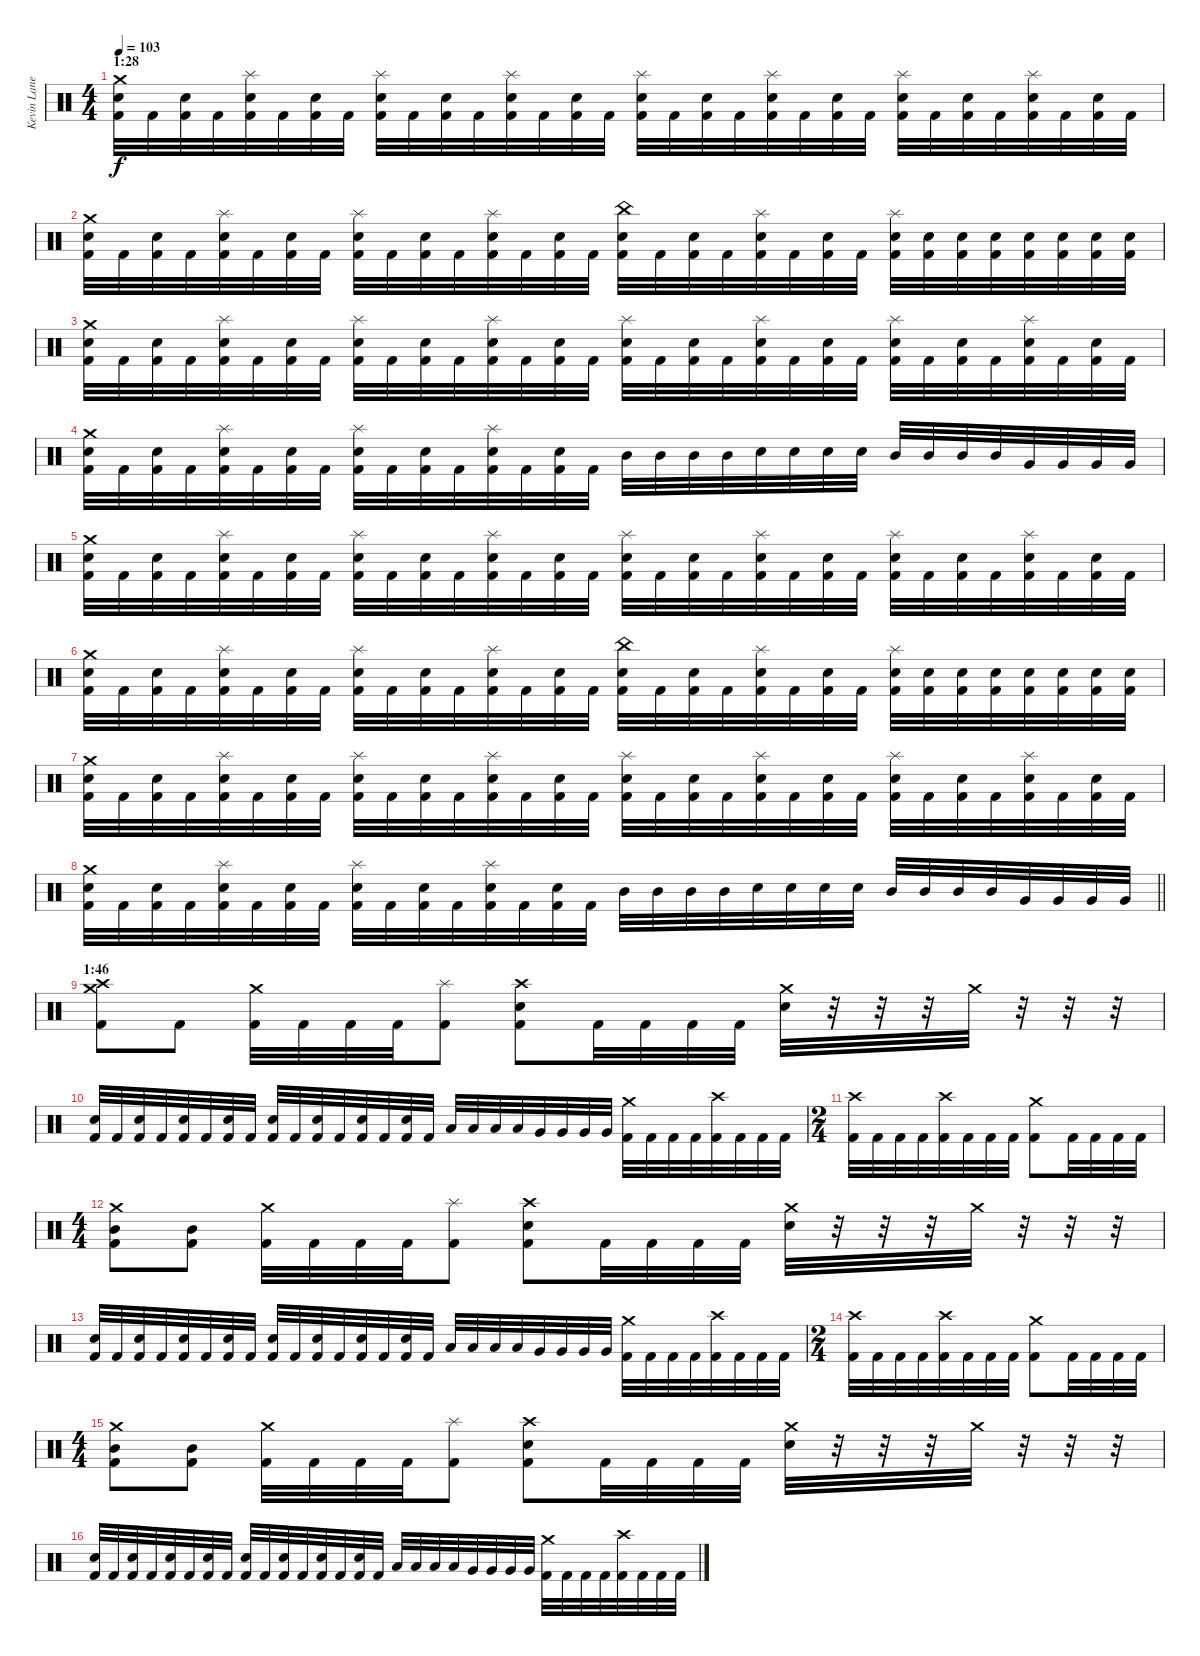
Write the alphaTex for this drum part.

\track ("Kevin Lane" "Kevin Lane") {instrument percussion}
\staff {score}
\articulation defaults
\ts (4 4)
\section ("" "1:28")
\tempo 103
\clef neutral
\ks c
("Crash medium (hit)" "Electric Snare (hit)" "Kick (hit) 2").32{dy f} "Kick (hit) 2".32 ("Electric Snare (hit)" "Kick (hit) 2").32 "Kick (hit) 2".32 ("Splash (hit)" "Electric Snare (hit)" "Kick (hit) 2").32 "Kick (hit) 2".32 ("Electric Snare (hit)" "Kick (hit) 2").32 "Kick (hit) 2".32 ("Splash (hit)" "Electric Snare (hit)" "Kick (hit) 2").32 "Kick (hit) 2".32 ("Electric Snare (hit)" "Kick (hit) 2").32 "Kick (hit) 2".32 ("Splash (hit)" "Electric Snare (hit)" "Kick (hit) 2").32 "Kick (hit) 2".32 ("Electric Snare (hit)" "Kick (hit) 2").32 "Kick (hit) 2".32 ("Splash (hit)" "Electric Snare (hit)" "Kick (hit) 2").32 "Kick (hit) 2".32 ("Electric Snare (hit)" "Kick (hit) 2").32 "Kick (hit) 2".32 ("Splash (hit)" "Electric Snare (hit)" "Kick (hit) 2").32 "Kick (hit) 2".32 ("Electric Snare (hit)" "Kick (hit) 2").32 "Kick (hit) 2".32 ("Splash (hit)" "Electric Snare (hit)" "Kick (hit) 2").32 "Kick (hit) 2".32 ("Electric Snare (hit)" "Kick (hit) 2").32 "Kick (hit) 2".32 ("Splash (hit)" "Electric Snare (hit)" "Kick (hit) 2").32 "Kick (hit) 2".32 ("Electric Snare (hit)" "Kick (hit) 2").32 "Kick (hit) 2".32 |
("Crash medium (hit)" "Electric Snare (hit)" "Kick (hit) 2").32 "Kick (hit) 2".32 ("Electric Snare (hit)" "Kick (hit) 2").32 "Kick (hit) 2".32 ("Splash (hit)" "Electric Snare (hit)" "Kick (hit) 2").32 "Kick (hit) 2".32 ("Electric Snare (hit)" "Kick (hit) 2").32 "Kick (hit) 2".32 ("Splash (hit)" "Electric Snare (hit)" "Kick (hit) 2").32 "Kick (hit) 2".32 ("Electric Snare (hit)" "Kick (hit) 2").32 "Kick (hit) 2".32 ("Splash (hit)" "Electric Snare (hit)" "Kick (hit) 2").32 "Kick (hit) 2".32 ("Electric Snare (hit)" "Kick (hit) 2").32 "Kick (hit) 2".32 ("China (hit)" "Electric Snare (hit)" "Kick (hit) 2").32 "Kick (hit) 2".32 ("Electric Snare (hit)" "Kick (hit) 2").32 "Kick (hit) 2".32 ("Splash (hit)" "Electric Snare (hit)" "Kick (hit) 2").32 "Kick (hit) 2".32 ("Electric Snare (hit)" "Kick (hit) 2").32 "Kick (hit) 2".32 ("Splash (hit)" "Electric Snare (hit)" "Kick (hit) 2").32 ("Electric Snare (hit)" "Kick (hit) 2").32 ("Electric Snare (hit)" "Kick (hit) 2").32 ("Electric Snare (hit)" "Kick (hit) 2").32 ("Electric Snare (hit)" "Kick (hit) 2").32 ("Electric Snare (hit)" "Kick (hit) 2").32 ("Electric Snare (hit)" "Kick (hit) 2").32 ("Electric Snare (hit)" "Kick (hit) 2").32 |
("Crash medium (hit)" "Electric Snare (hit)" "Kick (hit) 2").32 "Kick (hit) 2".32 ("Electric Snare (hit)" "Kick (hit) 2").32 "Kick (hit) 2".32 ("Splash (hit)" "Electric Snare (hit)" "Kick (hit) 2").32 "Kick (hit) 2".32 ("Electric Snare (hit)" "Kick (hit) 2").32 "Kick (hit) 2".32 ("Splash (hit)" "Electric Snare (hit)" "Kick (hit) 2").32 "Kick (hit) 2".32 ("Electric Snare (hit)" "Kick (hit) 2").32 "Kick (hit) 2".32 ("Splash (hit)" "Electric Snare (hit)" "Kick (hit) 2").32 "Kick (hit) 2".32 ("Electric Snare (hit)" "Kick (hit) 2").32 "Kick (hit) 2".32 ("Splash (hit)" "Electric Snare (hit)" "Kick (hit) 2").32 "Kick (hit) 2".32 ("Electric Snare (hit)" "Kick (hit) 2").32 "Kick (hit) 2".32 ("Splash (hit)" "Electric Snare (hit)" "Kick (hit) 2").32 "Kick (hit) 2".32 ("Electric Snare (hit)" "Kick (hit) 2").32 "Kick (hit) 2".32 ("Splash (hit)" "Electric Snare (hit)" "Kick (hit) 2").32 "Kick (hit) 2".32 ("Electric Snare (hit)" "Kick (hit) 2").32 "Kick (hit) 2".32 ("Splash (hit)" "Electric Snare (hit)" "Kick (hit) 2").32 "Kick (hit) 2".32 ("Electric Snare (hit)" "Kick (hit) 2").32 "Kick (hit) 2".32 |
("Crash medium (hit)" "Electric Snare (hit)" "Kick (hit) 2").32 "Kick (hit) 2".32 ("Electric Snare (hit)" "Kick (hit) 2").32 "Kick (hit) 2".32 ("Splash (hit)" "Electric Snare (hit)" "Kick (hit) 2").32 "Kick (hit) 2".32 ("Electric Snare (hit)" "Kick (hit) 2").32 "Kick (hit) 2".32 ("Splash (hit)" "Electric Snare (hit)" "Kick (hit) 2").32 "Kick (hit) 2".32 ("Electric Snare (hit)" "Kick (hit) 2").32 "Kick (hit) 2".32 ("Splash (hit)" "Electric Snare (hit)" "Kick (hit) 2").32 "Kick (hit) 2".32 ("Electric Snare (hit)" "Kick (hit) 2").32 "Kick (hit) 2".32 "Mid Tom (hit)".32 "Mid Tom (hit)".32 "Mid Tom (hit)".32 "Mid Tom (hit)".32 "Electric Snare (hit)".32 "Electric Snare (hit)".32 "Electric Snare (hit)".32 "Electric Snare (hit)".32 "Mid Tom (hit)".32 "Mid Tom (hit)".32 "Mid Tom (hit)".32 "Mid Tom (hit)".32 "Very Low Tom (hit)".32 "Very Low Tom (hit)".32 "Very Low Tom (hit)".32 "Very Low Tom (hit)".32 |
("Crash medium (hit)" "Electric Snare (hit)" "Kick (hit) 2").32 "Kick (hit) 2".32 ("Electric Snare (hit)" "Kick (hit) 2").32 "Kick (hit) 2".32 ("Splash (hit)" "Electric Snare (hit)" "Kick (hit) 2").32 "Kick (hit) 2".32 ("Electric Snare (hit)" "Kick (hit) 2").32 "Kick (hit) 2".32 ("Splash (hit)" "Electric Snare (hit)" "Kick (hit) 2").32 "Kick (hit) 2".32 ("Electric Snare (hit)" "Kick (hit) 2").32 "Kick (hit) 2".32 ("Splash (hit)" "Electric Snare (hit)" "Kick (hit) 2").32 "Kick (hit) 2".32 ("Electric Snare (hit)" "Kick (hit) 2").32 "Kick (hit) 2".32 ("Splash (hit)" "Electric Snare (hit)" "Kick (hit) 2").32 "Kick (hit) 2".32 ("Electric Snare (hit)" "Kick (hit) 2").32 "Kick (hit) 2".32 ("Splash (hit)" "Electric Snare (hit)" "Kick (hit) 2").32 "Kick (hit) 2".32 ("Electric Snare (hit)" "Kick (hit) 2").32 "Kick (hit) 2".32 ("Splash (hit)" "Electric Snare (hit)" "Kick (hit) 2").32 "Kick (hit) 2".32 ("Electric Snare (hit)" "Kick (hit) 2").32 "Kick (hit) 2".32 ("Splash (hit)" "Electric Snare (hit)" "Kick (hit) 2").32 "Kick (hit) 2".32 ("Electric Snare (hit)" "Kick (hit) 2").32 "Kick (hit) 2".32 |
("Crash medium (hit)" "Electric Snare (hit)" "Kick (hit) 2").32 "Kick (hit) 2".32 ("Electric Snare (hit)" "Kick (hit) 2").32 "Kick (hit) 2".32 ("Splash (hit)" "Electric Snare (hit)" "Kick (hit) 2").32 "Kick (hit) 2".32 ("Electric Snare (hit)" "Kick (hit) 2").32 "Kick (hit) 2".32 ("Splash (hit)" "Electric Snare (hit)" "Kick (hit) 2").32 "Kick (hit) 2".32 ("Electric Snare (hit)" "Kick (hit) 2").32 "Kick (hit) 2".32 ("Splash (hit)" "Electric Snare (hit)" "Kick (hit) 2").32 "Kick (hit) 2".32 ("Electric Snare (hit)" "Kick (hit) 2").32 "Kick (hit) 2".32 ("China (hit)" "Electric Snare (hit)" "Kick (hit) 2").32 "Kick (hit) 2".32 ("Electric Snare (hit)" "Kick (hit) 2").32 "Kick (hit) 2".32 ("Splash (hit)" "Electric Snare (hit)" "Kick (hit) 2").32 "Kick (hit) 2".32 ("Electric Snare (hit)" "Kick (hit) 2").32 "Kick (hit) 2".32 ("Splash (hit)" "Electric Snare (hit)" "Kick (hit) 2").32 ("Electric Snare (hit)" "Kick (hit) 2").32 ("Electric Snare (hit)" "Kick (hit) 2").32 ("Electric Snare (hit)" "Kick (hit) 2").32 ("Electric Snare (hit)" "Kick (hit) 2").32 ("Electric Snare (hit)" "Kick (hit) 2").32 ("Electric Snare (hit)" "Kick (hit) 2").32 ("Electric Snare (hit)" "Kick (hit) 2").32 |
("Crash medium (hit)" "Electric Snare (hit)" "Kick (hit) 2").32 "Kick (hit) 2".32 ("Electric Snare (hit)" "Kick (hit) 2").32 "Kick (hit) 2".32 ("Splash (hit)" "Electric Snare (hit)" "Kick (hit) 2").32 "Kick (hit) 2".32 ("Electric Snare (hit)" "Kick (hit) 2").32 "Kick (hit) 2".32 ("Splash (hit)" "Electric Snare (hit)" "Kick (hit) 2").32 "Kick (hit) 2".32 ("Electric Snare (hit)" "Kick (hit) 2").32 "Kick (hit) 2".32 ("Splash (hit)" "Electric Snare (hit)" "Kick (hit) 2").32 "Kick (hit) 2".32 ("Electric Snare (hit)" "Kick (hit) 2").32 "Kick (hit) 2".32 ("Splash (hit)" "Electric Snare (hit)" "Kick (hit) 2").32 "Kick (hit) 2".32 ("Electric Snare (hit)" "Kick (hit) 2").32 "Kick (hit) 2".32 ("Splash (hit)" "Electric Snare (hit)" "Kick (hit) 2").32 "Kick (hit) 2".32 ("Electric Snare (hit)" "Kick (hit) 2").32 "Kick (hit) 2".32 ("Splash (hit)" "Electric Snare (hit)" "Kick (hit) 2").32 "Kick (hit) 2".32 ("Electric Snare (hit)" "Kick (hit) 2").32 "Kick (hit) 2".32 ("Splash (hit)" "Electric Snare (hit)" "Kick (hit) 2").32 "Kick (hit) 2".32 ("Electric Snare (hit)" "Kick (hit) 2").32 "Kick (hit) 2".32 |
\barLineRight lightlight
("Crash medium (hit)" "Electric Snare (hit)" "Kick (hit) 2").32 "Kick (hit) 2".32 ("Electric Snare (hit)" "Kick (hit) 2").32 "Kick (hit) 2".32 ("Splash (hit)" "Electric Snare (hit)" "Kick (hit) 2").32 "Kick (hit) 2".32 ("Electric Snare (hit)" "Kick (hit) 2").32 "Kick (hit) 2".32 ("Splash (hit)" "Electric Snare (hit)" "Kick (hit) 2").32 "Kick (hit) 2".32 ("Electric Snare (hit)" "Kick (hit) 2").32 "Kick (hit) 2".32 ("Splash (hit)" "Electric Snare (hit)" "Kick (hit) 2").32 "Kick (hit) 2".32 ("Electric Snare (hit)" "Kick (hit) 2").32 "Kick (hit) 2".32 "Mid Tom (hit)".32 "Mid Tom (hit)".32 "Mid Tom (hit)".32 "Mid Tom (hit)".32 "Electric Snare (hit)".32 "Electric Snare (hit)".32 "Electric Snare (hit)".32 "Electric Snare (hit)".32 "Mid Tom (hit)".32 "Mid Tom (hit)".32 "Mid Tom (hit)".32 "Mid Tom (hit)".32 "Very Low Tom (hit)".32 "Very Low Tom (hit)".32 "Very Low Tom (hit)".32 "Very Low Tom (hit)".32 |
\section ("" "1:46")
("Crash high (hit)" "Crash medium (hit)" "Kick (hit) 2").8 "Kick (hit) 2".8 ("Crash medium (hit)" "Kick (hit) 2").32 "Kick (hit) 2".32 "Kick (hit) 2".32 "Kick (hit) 2".32 ("Splash (hit)" "Kick (hit) 2").8 ("Crash high (hit)" "Electric Snare (hit)" "Kick (hit) 2").8 "Kick (hit) 2".32 "Kick (hit) 2".32 "Kick (hit) 2".32 "Kick (hit) 2".32 ("Crash medium (hit)" "Electric Snare (hit)").32 r.32 r.32 r.32 "Crash medium (hit)".32 r.32 r.32 r.32 |
("Electric Snare (hit)" "Kick (hit) 2").32 "Kick (hit) 2".32 ("Electric Snare (hit)" "Kick (hit) 2").32 "Kick (hit) 2".32 ("Electric Snare (hit)" "Kick (hit) 2").32 "Kick (hit) 2".32 ("Electric Snare (hit)" "Kick (hit) 2").32 "Kick (hit) 2".32 ("Electric Snare (hit)" "Kick (hit) 2").32 "Kick (hit) 2".32 ("Electric Snare (hit)" "Kick (hit) 2").32 "Kick (hit) 2".32 ("Electric Snare (hit)" "Kick (hit) 2").32 "Kick (hit) 2".32 ("Electric Snare (hit)" "Kick (hit) 2").32 "Kick (hit) 2".32 "Low Tom (hit)".32 "Low Tom (hit)".32 "Low Tom (hit)".32 "Low Tom (hit)".32 "Very Low Tom (hit)".32 "Very Low Tom (hit)".32 "Very Low Tom (hit)".32 "Very Low Tom (hit)".32 ("Crash medium (hit)" "Kick (hit) 2").32 "Kick (hit) 2".32 "Kick (hit) 2".32 "Kick (hit) 2".32 ("Crash high (hit)" "Kick (hit) 2").32 "Kick (hit) 2".32 "Kick (hit) 2".32 "Kick (hit) 2".32 |
\ts (2 4)
("Crash high (hit)" "Kick (hit) 2").32 "Kick (hit) 2".32 "Kick (hit) 2".32 "Kick (hit) 2".32 ("Crash high (hit)" "Kick (hit) 2").32 "Kick (hit) 2".32 "Kick (hit) 2".32 "Kick (hit) 2".32 ("Crash medium (hit)" "Kick (hit) 2").8 "Kick (hit) 2".32 "Kick (hit) 2".32 "Kick (hit) 2".32 "Kick (hit) 2".32 |
\ts (4 4)
("Crash medium (hit)" "Mid Tom (hit)" "Kick (hit) 2").8 ("Mid Tom (hit)" "Kick (hit) 2").8 ("Crash medium (hit)" "Kick (hit) 2").32 "Kick (hit) 2".32 "Kick (hit) 2".32 "Kick (hit) 2".32 ("Splash (hit)" "Kick (hit) 2").8 ("Crash high (hit)" "Electric Snare (hit)" "Kick (hit) 2").8 "Kick (hit) 2".32 "Kick (hit) 2".32 "Kick (hit) 2".32 "Kick (hit) 2".32 ("Crash medium (hit)" "Electric Snare (hit)").32 r.32 r.32 r.32 "Crash medium (hit)".32 r.32 r.32 r.32 |
("Electric Snare (hit)" "Kick (hit) 2").32 "Kick (hit) 2".32 ("Electric Snare (hit)" "Kick (hit) 2").32 "Kick (hit) 2".32 ("Electric Snare (hit)" "Kick (hit) 2").32 "Kick (hit) 2".32 ("Electric Snare (hit)" "Kick (hit) 2").32 "Kick (hit) 2".32 ("Electric Snare (hit)" "Kick (hit) 2").32 "Kick (hit) 2".32 ("Electric Snare (hit)" "Kick (hit) 2").32 "Kick (hit) 2".32 ("Electric Snare (hit)" "Kick (hit) 2").32 "Kick (hit) 2".32 ("Electric Snare (hit)" "Kick (hit) 2").32 "Kick (hit) 2".32 "Low Tom (hit)".32 "Low Tom (hit)".32 "Low Tom (hit)".32 "Low Tom (hit)".32 "Very Low Tom (hit)".32 "Very Low Tom (hit)".32 "Very Low Tom (hit)".32 "Very Low Tom (hit)".32 ("Crash medium (hit)" "Kick (hit) 2").32 "Kick (hit) 2".32 "Kick (hit) 2".32 "Kick (hit) 2".32 ("Crash high (hit)" "Kick (hit) 2").32 "Kick (hit) 2".32 "Kick (hit) 2".32 "Kick (hit) 2".32 |
\ts (2 4)
("Crash high (hit)" "Kick (hit) 2").32 "Kick (hit) 2".32 "Kick (hit) 2".32 "Kick (hit) 2".32 ("Crash high (hit)" "Kick (hit) 2").32 "Kick (hit) 2".32 "Kick (hit) 2".32 "Kick (hit) 2".32 ("Crash medium (hit)" "Kick (hit) 2").8 "Kick (hit) 2".32 "Kick (hit) 2".32 "Kick (hit) 2".32 "Kick (hit) 2".32 |
\ts (4 4)
("Crash medium (hit)" "Mid Tom (hit)" "Kick (hit) 2").8 ("Mid Tom (hit)" "Kick (hit) 2").8 ("Crash medium (hit)" "Kick (hit) 2").32 "Kick (hit) 2".32 "Kick (hit) 2".32 "Kick (hit) 2".32 ("Splash (hit)" "Kick (hit) 2").8 ("Crash high (hit)" "Electric Snare (hit)" "Kick (hit) 2").8 "Kick (hit) 2".32 "Kick (hit) 2".32 "Kick (hit) 2".32 "Kick (hit) 2".32 ("Crash medium (hit)" "Electric Snare (hit)").32 r.32 r.32 r.32 "Crash medium (hit)".32 r.32 r.32 r.32 |
("Electric Snare (hit)" "Kick (hit) 2").32 "Kick (hit) 2".32 ("Electric Snare (hit)" "Kick (hit) 2").32 "Kick (hit) 2".32 ("Electric Snare (hit)" "Kick (hit) 2").32 "Kick (hit) 2".32 ("Electric Snare (hit)" "Kick (hit) 2").32 "Kick (hit) 2".32 ("Electric Snare (hit)" "Kick (hit) 2").32 "Kick (hit) 2".32 ("Electric Snare (hit)" "Kick (hit) 2").32 "Kick (hit) 2".32 ("Electric Snare (hit)" "Kick (hit) 2").32 "Kick (hit) 2".32 ("Electric Snare (hit)" "Kick (hit) 2").32 "Kick (hit) 2".32 "Low Tom (hit)".32 "Low Tom (hit)".32 "Low Tom (hit)".32 "Low Tom (hit)".32 "Very Low Tom (hit)".32 "Very Low Tom (hit)".32 "Very Low Tom (hit)".32 "Very Low Tom (hit)".32 ("Crash medium (hit)" "Kick (hit) 2").32 "Kick (hit) 2".32 "Kick (hit) 2".32 "Kick (hit) 2".32 ("Crash high (hit)" "Kick (hit) 2").32 "Kick (hit) 2".32 "Kick (hit) 2".32 "Kick (hit) 2".32
